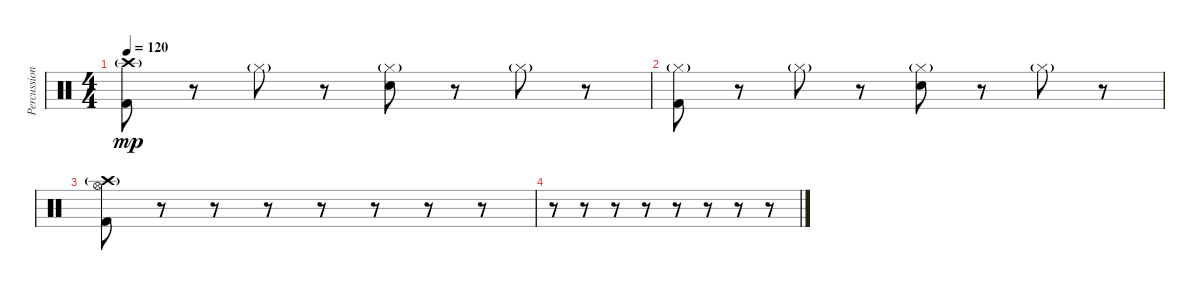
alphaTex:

\track ("Percussion" "Percussion") {instrument percussion}
\staff {score}
\articulation defaults
\ts (4 4)
\tempo 120
\clef neutral
\ks c
("Crash high (hit)"{g} "Kick (hit) 2").8{dy mp} r.8 "Hi-Hat (closed)"{g}.8 r.8 ("Hi-Hat (closed)"{g} "Electric Snare (hit)").8 r.8 "Hi-Hat (closed)"{g}.8 r.8 |
("Hi-Hat (closed)"{g} "Kick (hit) 2").8 r.8 "Hi-Hat (closed)"{g}.8 r.8 ("Hi-Hat (closed)"{g} "Electric Snare (hit)").8 r.8 "Hi-Hat (closed)"{g}.8 r.8 |
("Crash high (hit)"{g} "Hi-Hat (open)" "Kick (hit) 2").8 r.8 r.8 r.8 r.8 r.8 r.8 r.8 |
r.8 r.8 r.8 r.8 r.8 r.8 r.8 r.8
